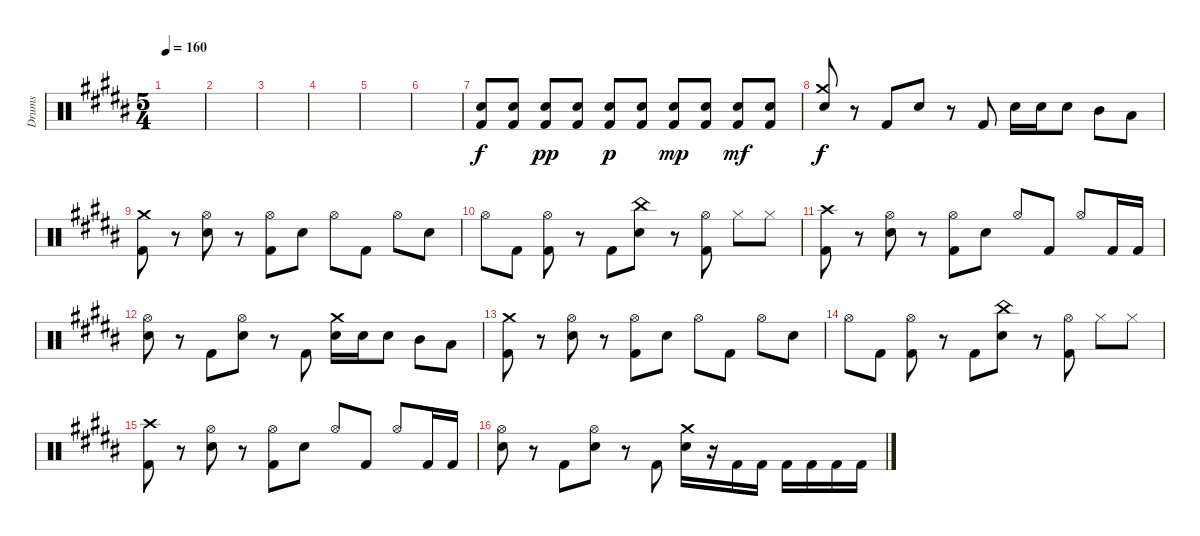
\bracketExtendMode groupsimilarinstruments
\otherSystemsTrackNameOrientation horizontal
\track ("Drumkit" "Drums") {instrument percussion}
\staff {score}
\articulation defaults
\ts (5 4)
\tempo 160
\clef neutral
\ks b
|
|
|
|
|
|
("Kick (hit) 2"{acc bb} "Snare (hit) 2"{acc bb}).8{beam Up} ("Kick (hit) 2"{acc bb} "Snare (hit) 2"{acc bb}).8{beam Up} ("Kick (hit) 2"{acc bb} "Snare (hit) 2"{acc bb}).8{dy pp beam Up} ("Kick (hit) 2"{acc bb} "Snare (hit) 2"{acc bb}).8{beam Up} ("Kick (hit) 2"{acc bb} "Snare (hit) 2"{acc bb}).8{dy p beam Up} ("Kick (hit) 2"{acc bb} "Snare (hit) 2"{acc bb}).8{beam Up} ("Kick (hit) 2"{acc bb} "Snare (hit) 2"{acc bb}).8{dy mp beam Up} ("Kick (hit) 2"{acc bb} "Snare (hit) 2"{acc bb}).8{beam Up} ("Kick (hit) 2"{acc bb} "Snare (hit) 2"{acc bb}).8{dy mf beam Up} ("Kick (hit) 2"{acc bb} "Snare (hit) 2"{acc bb}).8{beam Up} |
("Crash medium (hit)"{acc bb} "Snare (hit) 2"{acc bb}).8{dy f beam Up} r.8{beam Up} "Kick (hit) 2"{acc bb}.8{beam Up} "Snare (hit) 2"{acc bb}.8{beam Up} r.8{beam Up} "Kick (hit) 2"{acc bb}.8{beam Up} "Snare (hit) 2"{acc bb}.16{beam Down} "Snare (hit) 2"{acc bb}.16{beam Down} "Snare (hit) 2"{acc bb}.8{beam Down} "Mid Tom (hit)"{acc bb}.8{beam Down} "Low Tom (hit)"{acc bb}.8{beam Down} |
("Kick (hit) 2"{acc bb} "Crash medium (hit)"{acc bb}).8{beam Down} r.8{beam Down} ("Snare (hit) 2"{acc bb} "Hi-Hat (open)"{acc bb}).8{beam Down} r.8{beam Down} ("Kick (hit) 2"{acc bb} "Hi-Hat (open)"{acc bb}).8{beam Down} "Snare (hit) 2"{acc bb}.8{beam Down} "Hi-Hat (open)"{acc bb}.8{beam Down} "Kick (hit) 2"{acc bb}.8{beam Down} "Hi-Hat (open)"{acc bb}.8{beam Down} "Snare (hit) 2"{acc bb}.8{beam Down} |
"Hi-Hat (open)"{acc bb}.8{beam Down} "Kick (hit) 2"{acc bb}.8{beam Down} ("Kick (hit) 2"{acc bb} "Hi-Hat (open)"{acc bb}).8{beam Down} r.8{beam Down} "Kick (hit) 2"{acc bb}.8{beam Down} ("China (hit)"{acc bb} "Snare (hit) 2"{acc bb}).8{beam Down} r.8{beam Down} ("Hi-Hat (open)"{acc bb} "Kick (hit) 2"{acc bb}).8{beam Down} "Hi-Hat (closed)"{acc bb}.8{beam Down} "Hi-Hat (closed)"{acc bb}.8{beam Down} |
("Kick (hit) 2"{acc bb} "Crash high (hit)"{acc bb}).8{beam Down} r.8{beam Down} ("Snare (hit) 2"{acc bb} "Hi-Hat (open)"{acc bb}).8{beam Down} r.8{beam Down} ("Kick (hit) 2"{acc bb} "Hi-Hat (open)"{acc bb}).8{beam Down} "Snare (hit) 2"{acc bb}.8{beam Down} "Hi-Hat (open)"{acc bb}.8{beam Up} "Kick (hit) 2"{acc bb}.8{beam Up} "Hi-Hat (open)"{acc bb}.8{beam Up} "Kick (hit) 2"{acc bb}.16{beam Up} "Kick (hit) 2"{acc bb}.16{beam Up} |
("Snare (hit) 2"{acc bb} "Hi-Hat (open)"{acc bb}).8{beam Down} r.8{beam Down} "Kick (hit) 2"{acc bb}.8{beam Down} ("Snare (hit) 2"{acc bb} "Hi-Hat (open)"{acc bb}).8{beam Down} r.8{beam Down} "Kick (hit) 2"{acc bb}.8{beam Down} ("Snare (hit) 2"{acc bb} "Crash medium (hit)"{acc bb}).16{beam Down} "Snare (hit) 2"{acc bb}.16{beam Down} "Snare (hit) 2"{acc bb}.8{beam Down} "Mid Tom (hit)"{acc bb}.8{beam Down} "Low Tom (hit)"{acc bb}.8{beam Down} |
("Kick (hit) 2"{acc bb} "Crash medium (hit)"{acc bb}).8{beam Down} r.8{beam Down} ("Snare (hit) 2"{acc bb} "Hi-Hat (open)"{acc bb}).8{beam Down} r.8{beam Down} ("Kick (hit) 2"{acc bb} "Hi-Hat (open)"{acc bb}).8{beam Down} "Snare (hit) 2"{acc bb}.8{beam Down} "Hi-Hat (open)"{acc bb}.8{beam Down} "Kick (hit) 2"{acc bb}.8{beam Down} "Hi-Hat (open)"{acc bb}.8{beam Down} "Snare (hit) 2"{acc bb}.8{beam Down} |
"Hi-Hat (open)"{acc bb}.8{beam Down} "Kick (hit) 2"{acc bb}.8{beam Down} ("Kick (hit) 2"{acc bb} "Hi-Hat (open)"{acc bb}).8{beam Down} r.8{beam Down} "Kick (hit) 2"{acc bb}.8{beam Down} ("China (hit)"{acc bb} "Snare (hit) 2"{acc bb}).8{beam Down} r.8{beam Down} ("Hi-Hat (open)"{acc bb} "Kick (hit) 2"{acc bb}).8{beam Down} "Hi-Hat (closed)"{acc bb}.8{beam Down} "Hi-Hat (closed)"{acc bb}.8{beam Down} |
("Kick (hit) 2"{acc bb} "Crash high (hit)"{acc bb}).8{beam Down} r.8{beam Down} ("Snare (hit) 2"{acc bb} "Hi-Hat (open)"{acc bb}).8{beam Down} r.8{beam Down} ("Kick (hit) 2"{acc bb} "Hi-Hat (open)"{acc bb}).8{beam Down} "Snare (hit) 2"{acc bb}.8{beam Down} "Hi-Hat (open)"{acc bb}.8{beam Up} "Kick (hit) 2"{acc bb}.8{beam Up} "Hi-Hat (open)"{acc bb}.8{beam Up} "Kick (hit) 2"{acc bb}.16{beam Up} "Kick (hit) 2"{acc bb}.16{beam Up} |
("Snare (hit) 2"{acc bb} "Hi-Hat (open)"{acc bb}).8{beam Down} r.8{beam Down} "Kick (hit) 2"{acc bb}.8{beam Down} ("Snare (hit) 2"{acc bb} "Hi-Hat (open)"{acc bb}).8{beam Down} r.8{beam Down} "Kick (hit) 2"{acc bb}.8{beam Down} ("Snare (hit) 2"{acc bb} "Crash medium (hit)"{acc bb}).16{beam Down} r.16{beam Down} "Kick (hit) 2"{acc bb}.16{beam Down} "Kick (hit) 2"{acc bb}.16{beam Down} "Kick (hit) 2"{acc bb}.16{beam Down} "Kick (hit) 2"{acc bb}.16{beam Down} "Kick (hit) 2"{acc bb}.16{beam Down} "Kick (hit) 2"{acc bb}.16{beam Down}
